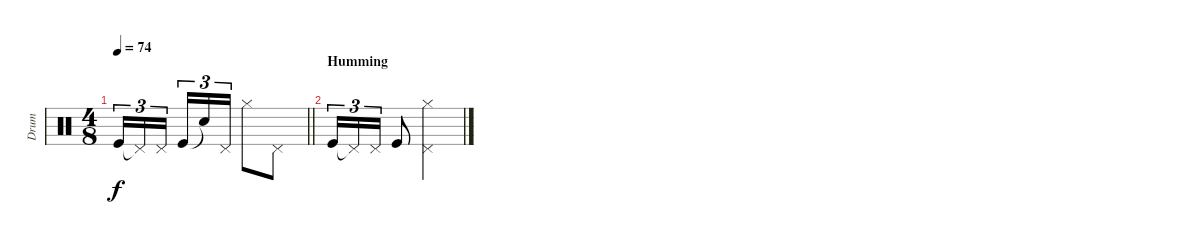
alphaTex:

\track ("Drum" "Drum") {instrument percussion}
\staff {score}
\articulation defaults
\ts (4 8)
\tempo 74
\clef neutral
\barLineRight lightlight
\ks c "Kick (hit)".16{tu (3 2) dy f} "Pedal Hi-Hat (hit)"{t}.16{tu (3 2)} "Pedal Hi-Hat (hit)".16{tu (3 2)} "Kick (hit)".16{tu (3 2)} "Snare (hit)"{t}.16{tu (3 2)} "Pedal Hi-Hat (hit)".16{tu (3 2)} "Hi-Hat (closed)".8 "Pedal Hi-Hat (hit)".8
|
\section ("" "Humming")
"Kick (hit)".16{tu (3 2)} "Pedal Hi-Hat (hit)"{t}.16{tu (3 2)} "Pedal Hi-Hat (hit)".16{tu (3 2)} "Kick (hit)".8 ("Pedal Hi-Hat (hit)" "Hi-Hat (closed)").4
